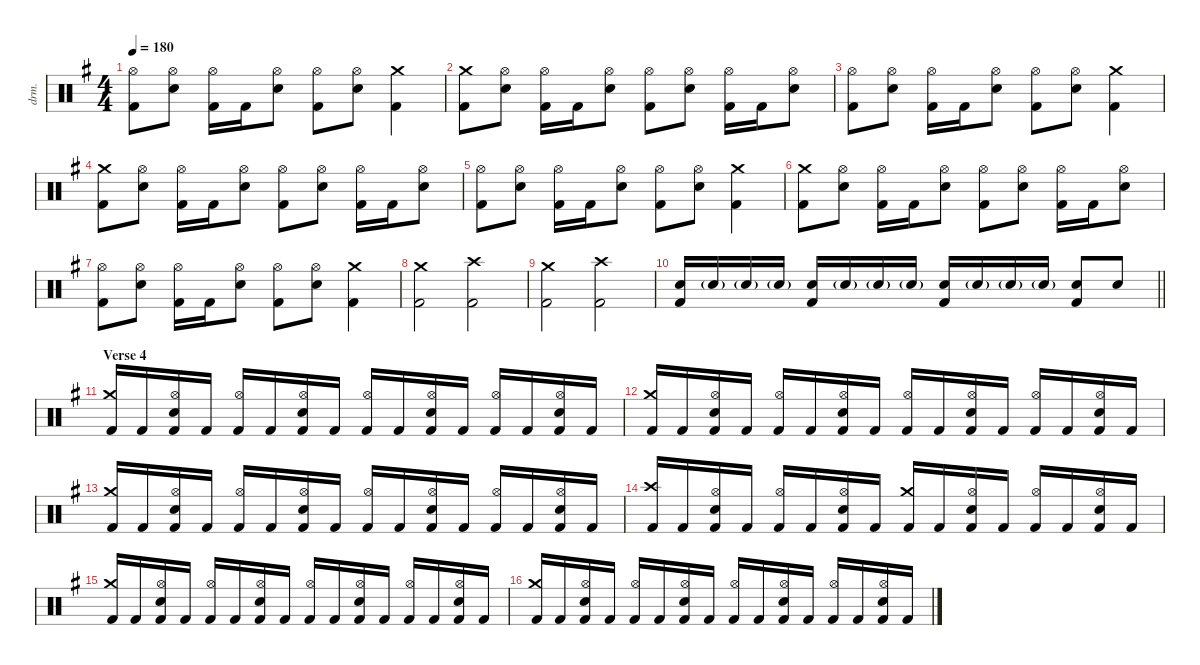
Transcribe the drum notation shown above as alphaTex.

\defaultSystemsLayout 4
\hideDynamics
\bracketExtendMode nobrackets
\otherSystemsTrackNameOrientation horizontal
\track ("Lars Ulrich" "drm.") {instrument percussion}
\staff {score}
\articulation defaults
\ts (4 4)
\tempo 180
\clef neutral
\ks eminor
("Hi-Hat (open)"{acc forcenatural} "Kick (hit) 2"{acc forcenatural}).8{dy f beam Down} ("Hi-Hat (open)"{acc forcenatural} "Snare (hit) 2"{acc forcenatural}).8{beam Down} ("Hi-Hat (open)"{acc forcenatural} "Kick (hit) 2"{acc forcenatural}).16{beam Down} "Kick (hit) 2"{acc forcenatural}.16{beam Down} ("Hi-Hat (open)"{acc forcenatural} "Snare (hit) 2"{acc forcenatural}).8{beam Down} ("Hi-Hat (open)"{acc forcenatural} "Kick (hit) 2"{acc forcenatural}).8{beam Down} ("Hi-Hat (open)"{acc forcenatural} "Snare (hit) 2"{acc forcenatural}).8{beam Down} ("Crash medium (hit)"{acc forcenatural} "Kick (hit) 2"{acc forcenatural}).4{beam Down} |
("Crash medium (hit)"{acc forcenatural} "Kick (hit) 2"{acc forcenatural}).8{beam Down} ("Hi-Hat (open)"{acc forcenatural} "Snare (hit) 2"{acc forcenatural}).8{beam Down} ("Hi-Hat (open)"{acc forcenatural} "Kick (hit) 2"{acc forcenatural}).16{beam Down} "Kick (hit) 2"{acc forcenatural}.16{beam Down} ("Hi-Hat (open)"{acc forcenatural} "Snare (hit) 2"{acc forcenatural}).8{beam Down} ("Hi-Hat (open)"{acc forcenatural} "Kick (hit) 2"{acc forcenatural}).8{beam Down} ("Hi-Hat (open)"{acc forcenatural} "Snare (hit) 2"{acc forcenatural}).8{beam Down} ("Hi-Hat (open)"{acc forcenatural} "Kick (hit) 2"{acc forcenatural}).16{beam Down} "Kick (hit) 2"{acc forcenatural}.16{beam Down} ("Hi-Hat (open)"{acc forcenatural} "Snare (hit) 2"{acc forcenatural}).8{beam Down} |
("Hi-Hat (open)"{acc forcenatural} "Kick (hit) 2"{acc forcenatural}).8{beam Down} ("Hi-Hat (open)"{acc forcenatural} "Snare (hit) 2"{acc forcenatural}).8{beam Down} ("Hi-Hat (open)"{acc forcenatural} "Kick (hit) 2"{acc forcenatural}).16{beam Down} "Kick (hit) 2"{acc forcenatural}.16{beam Down} ("Hi-Hat (open)"{acc forcenatural} "Snare (hit) 2"{acc forcenatural}).8{beam Down} ("Hi-Hat (open)"{acc forcenatural} "Kick (hit) 2"{acc forcenatural}).8{beam Down} ("Hi-Hat (open)"{acc forcenatural} "Snare (hit) 2"{acc forcenatural}).8{beam Down} ("Crash medium (hit)"{acc forcenatural} "Kick (hit) 2"{acc forcenatural}).4{beam Down} |
("Crash medium (hit)"{acc forcenatural} "Kick (hit) 2"{acc forcenatural}).8{beam Down} ("Hi-Hat (open)"{acc forcenatural} "Snare (hit) 2"{acc forcenatural}).8{beam Down} ("Hi-Hat (open)"{acc forcenatural} "Kick (hit) 2"{acc forcenatural}).16{beam Down} "Kick (hit) 2"{acc forcenatural}.16{beam Down} ("Hi-Hat (open)"{acc forcenatural} "Snare (hit) 2"{acc forcenatural}).8{beam Down} ("Hi-Hat (open)"{acc forcenatural} "Kick (hit) 2"{acc forcenatural}).8{beam Down} ("Hi-Hat (open)"{acc forcenatural} "Snare (hit) 2"{acc forcenatural}).8{beam Down} ("Hi-Hat (open)"{acc forcenatural} "Kick (hit) 2"{acc forcenatural}).16{beam Down} "Kick (hit) 2"{acc forcenatural}.16{beam Down} ("Hi-Hat (open)"{acc forcenatural} "Snare (hit) 2"{acc forcenatural}).8{beam Down} |
("Hi-Hat (open)"{acc forcenatural} "Kick (hit) 2"{acc forcenatural}).8{beam Down} ("Hi-Hat (open)"{acc forcenatural} "Snare (hit) 2"{acc forcenatural}).8{beam Down} ("Hi-Hat (open)"{acc forcenatural} "Kick (hit) 2"{acc forcenatural}).16{beam Down} "Kick (hit) 2"{acc forcenatural}.16{beam Down} ("Hi-Hat (open)"{acc forcenatural} "Snare (hit) 2"{acc forcenatural}).8{beam Down} ("Hi-Hat (open)"{acc forcenatural} "Kick (hit) 2"{acc forcenatural}).8{beam Down} ("Hi-Hat (open)"{acc forcenatural} "Snare (hit) 2"{acc forcenatural}).8{beam Down} ("Crash medium (hit)"{acc forcenatural} "Kick (hit) 2"{acc forcenatural}).4{beam Down} |
("Crash medium (hit)"{acc forcenatural} "Kick (hit) 2"{acc forcenatural}).8{beam Down} ("Hi-Hat (open)"{acc forcenatural} "Snare (hit) 2"{acc forcenatural}).8{beam Down} ("Hi-Hat (open)"{acc forcenatural} "Kick (hit) 2"{acc forcenatural}).16{beam Down} "Kick (hit) 2"{acc forcenatural}.16{beam Down} ("Hi-Hat (open)"{acc forcenatural} "Snare (hit) 2"{acc forcenatural}).8{beam Down} ("Hi-Hat (open)"{acc forcenatural} "Kick (hit) 2"{acc forcenatural}).8{beam Down} ("Hi-Hat (open)"{acc forcenatural} "Snare (hit) 2"{acc forcenatural}).8{beam Down} ("Hi-Hat (open)"{acc forcenatural} "Kick (hit) 2"{acc forcenatural}).16{beam Down} "Kick (hit) 2"{acc forcenatural}.16{beam Down} ("Hi-Hat (open)"{acc forcenatural} "Snare (hit) 2"{acc forcenatural}).8{beam Down} |
("Hi-Hat (open)"{acc forcenatural} "Kick (hit) 2"{acc forcenatural}).8{beam Down} ("Hi-Hat (open)"{acc forcenatural} "Snare (hit) 2"{acc forcenatural}).8{beam Down} ("Hi-Hat (open)"{acc forcenatural} "Kick (hit) 2"{acc forcenatural}).16{beam Down} "Kick (hit) 2"{acc forcenatural}.16{beam Down} ("Hi-Hat (open)"{acc forcenatural} "Snare (hit) 2"{acc forcenatural}).8{beam Down} ("Hi-Hat (open)"{acc forcenatural} "Kick (hit) 2"{acc forcenatural}).8{beam Down} ("Hi-Hat (open)"{acc forcenatural} "Snare (hit) 2"{acc forcenatural}).8{beam Down} ("Crash medium (hit)"{acc forcenatural} "Kick (hit) 2"{acc forcenatural}).4{beam Down} |
("Crash medium (hit)"{acc forcenatural} "Kick (hit) 2"{acc forcenatural}).2{beam Down} ("Crash high (hit)"{acc forcenatural} "Kick (hit) 2"{acc forcenatural}).2{beam Down} |
("Crash medium (hit)"{acc forcenatural} "Kick (hit) 2"{acc forcenatural}).2{beam Down} ("Crash high (hit)"{acc forcenatural} "Kick (hit) 2"{acc forcenatural}).2{beam Down} |
\barLineRight lightlight
("Snare (hit) 2"{acc forcenatural} "Kick (hit) 2"{acc forcenatural}).16{beam Up} "Snare (hit) 2"{g acc forcenatural}.16{dy ff beam Up} "Snare (hit) 2"{g acc forcenatural}.16{beam Up} "Snare (hit) 2"{g acc forcenatural}.16{beam Up} ("Snare (hit) 2"{acc forcenatural} "Kick (hit) 2"{acc forcenatural}).16{dy f beam Up} "Snare (hit) 2"{g acc forcenatural}.16{dy ff beam Up} "Snare (hit) 2"{g acc forcenatural}.16{beam Up} "Snare (hit) 2"{g acc forcenatural}.16{beam Up} ("Snare (hit) 2"{acc forcenatural} "Kick (hit) 2"{acc forcenatural}).16{dy f beam Up} "Snare (hit) 2"{g acc forcenatural}.16{dy ff beam Up} "Snare (hit) 2"{g acc forcenatural}.16{beam Up} "Snare (hit) 2"{g acc forcenatural}.16{beam Up} ("Snare (hit) 2"{acc forcenatural} "Kick (hit) 2"{acc forcenatural}).8{dy f beam Up} "Snare (hit) 2"{acc forcenatural}.8{beam Up} |
\section ("" "Verse 4")
("Crash medium (hit)"{acc forcenatural} "Kick (hit) 2"{acc forcenatural}).16{beam Up} "Kick (hit) 2"{acc forcenatural}.16{beam Up} ("Hi-Hat (open)"{acc forcenatural} "Snare (hit) 2"{acc forcenatural} "Kick (hit) 2"{acc forcenatural}).16{beam Up} "Kick (hit) 2"{acc forcenatural}.16{beam Up} ("Hi-Hat (open)"{acc forcenatural} "Kick (hit) 2"{acc forcenatural}).16{beam Up} "Kick (hit) 2"{acc forcenatural}.16{beam Up} ("Hi-Hat (open)"{acc forcenatural} "Snare (hit) 2"{acc forcenatural} "Kick (hit) 2"{acc forcenatural}).16{beam Up} "Kick (hit) 2"{acc forcenatural}.16{beam Up} ("Hi-Hat (open)"{acc forcenatural} "Kick (hit) 2"{acc forcenatural}).16{beam Up} "Kick (hit) 2"{acc forcenatural}.16{beam Up} ("Hi-Hat (open)"{acc forcenatural} "Snare (hit) 2"{acc forcenatural} "Kick (hit) 2"{acc forcenatural}).16{beam Up} "Kick (hit) 2"{acc forcenatural}.16{beam Up} ("Hi-Hat (open)"{acc forcenatural} "Kick (hit) 2"{acc forcenatural}).16{beam Up} "Kick (hit) 2"{acc forcenatural}.16{beam Up} ("Hi-Hat (open)"{acc forcenatural} "Snare (hit) 2"{acc forcenatural} "Kick (hit) 2"{acc forcenatural}).16{beam Up} "Kick (hit) 2"{acc forcenatural}.16{beam Up} |
("Crash medium (hit)"{acc forcenatural} "Kick (hit) 2"{acc forcenatural}).16{beam Up} "Kick (hit) 2"{acc forcenatural}.16{beam Up} ("Hi-Hat (open)"{acc forcenatural} "Snare (hit) 2"{acc forcenatural} "Kick (hit) 2"{acc forcenatural}).16{beam Up} "Kick (hit) 2"{acc forcenatural}.16{beam Up} ("Hi-Hat (open)"{acc forcenatural} "Kick (hit) 2"{acc forcenatural}).16{beam Up} "Kick (hit) 2"{acc forcenatural}.16{beam Up} ("Hi-Hat (open)"{acc forcenatural} "Snare (hit) 2"{acc forcenatural} "Kick (hit) 2"{acc forcenatural}).16{beam Up} "Kick (hit) 2"{acc forcenatural}.16{beam Up} ("Hi-Hat (open)"{acc forcenatural} "Kick (hit) 2"{acc forcenatural}).16{beam Up} "Kick (hit) 2"{acc forcenatural}.16{beam Up} ("Hi-Hat (open)"{acc forcenatural} "Snare (hit) 2"{acc forcenatural} "Kick (hit) 2"{acc forcenatural}).16{beam Up} "Kick (hit) 2"{acc forcenatural}.16{beam Up} ("Hi-Hat (open)"{acc forcenatural} "Kick (hit) 2"{acc forcenatural}).16{beam Up} "Kick (hit) 2"{acc forcenatural}.16{beam Up} ("Hi-Hat (open)"{acc forcenatural} "Snare (hit) 2"{acc forcenatural} "Kick (hit) 2"{acc forcenatural}).16{beam Up} "Kick (hit) 2"{acc forcenatural}.16{beam Up} |
("Crash medium (hit)"{acc forcenatural} "Kick (hit) 2"{acc forcenatural}).16{beam Up} "Kick (hit) 2"{acc forcenatural}.16{beam Up} ("Hi-Hat (open)"{acc forcenatural} "Snare (hit) 2"{acc forcenatural} "Kick (hit) 2"{acc forcenatural}).16{beam Up} "Kick (hit) 2"{acc forcenatural}.16{beam Up} ("Hi-Hat (open)"{acc forcenatural} "Kick (hit) 2"{acc forcenatural}).16{beam Up} "Kick (hit) 2"{acc forcenatural}.16{beam Up} ("Hi-Hat (open)"{acc forcenatural} "Snare (hit) 2"{acc forcenatural} "Kick (hit) 2"{acc forcenatural}).16{beam Up} "Kick (hit) 2"{acc forcenatural}.16{beam Up} ("Hi-Hat (open)"{acc forcenatural} "Kick (hit) 2"{acc forcenatural}).16{beam Up} "Kick (hit) 2"{acc forcenatural}.16{beam Up} ("Hi-Hat (open)"{acc forcenatural} "Snare (hit) 2"{acc forcenatural} "Kick (hit) 2"{acc forcenatural}).16{beam Up} "Kick (hit) 2"{acc forcenatural}.16{beam Up} ("Hi-Hat (open)"{acc forcenatural} "Kick (hit) 2"{acc forcenatural}).16{beam Up} "Kick (hit) 2"{acc forcenatural}.16{beam Up} ("Hi-Hat (open)"{acc forcenatural} "Snare (hit) 2"{acc forcenatural} "Kick (hit) 2"{acc forcenatural}).16{beam Up} "Kick (hit) 2"{acc forcenatural}.16{beam Up} |
("Crash high (hit)"{acc forcenatural} "Kick (hit) 2"{acc forcenatural}).16{beam Up} "Kick (hit) 2"{acc forcenatural}.16{beam Up} ("Hi-Hat (open)"{acc forcenatural} "Snare (hit) 2"{acc forcenatural} "Kick (hit) 2"{acc forcenatural}).16{beam Up} "Kick (hit) 2"{acc forcenatural}.16{beam Up} ("Hi-Hat (open)"{acc forcenatural} "Kick (hit) 2"{acc forcenatural}).16{beam Up} "Kick (hit) 2"{acc forcenatural}.16{beam Up} ("Hi-Hat (open)"{acc forcenatural} "Snare (hit) 2"{acc forcenatural} "Kick (hit) 2"{acc forcenatural}).16{beam Up} "Kick (hit) 2"{acc forcenatural}.16{beam Up} ("Crash medium (hit)"{acc forcenatural} "Kick (hit) 2"{acc forcenatural}).16{beam Up} "Kick (hit) 2"{acc forcenatural}.16{beam Up} ("Hi-Hat (open)"{acc forcenatural} "Snare (hit) 2"{acc forcenatural} "Kick (hit) 2"{acc forcenatural}).16{beam Up} "Kick (hit) 2"{acc forcenatural}.16{beam Up} ("Hi-Hat (open)"{acc forcenatural} "Kick (hit) 2"{acc forcenatural}).16{beam Up} "Kick (hit) 2"{acc forcenatural}.16{beam Up} ("Hi-Hat (open)"{acc forcenatural} "Snare (hit) 2"{acc forcenatural} "Kick (hit) 2"{acc forcenatural}).16{beam Up} "Kick (hit) 2"{acc forcenatural}.16{beam Up} |
("Crash medium (hit)"{acc forcenatural} "Kick (hit) 2"{acc forcenatural}).16{beam Up} "Kick (hit) 2"{acc forcenatural}.16{beam Up} ("Hi-Hat (open)"{acc forcenatural} "Snare (hit) 2"{acc forcenatural} "Kick (hit) 2"{acc forcenatural}).16{beam Up} "Kick (hit) 2"{acc forcenatural}.16{beam Up} ("Hi-Hat (open)"{acc forcenatural} "Kick (hit) 2"{acc forcenatural}).16{beam Up} "Kick (hit) 2"{acc forcenatural}.16{beam Up} ("Hi-Hat (open)"{acc forcenatural} "Snare (hit) 2"{acc forcenatural} "Kick (hit) 2"{acc forcenatural}).16{beam Up} "Kick (hit) 2"{acc forcenatural}.16{beam Up} ("Hi-Hat (open)"{acc forcenatural} "Kick (hit) 2"{acc forcenatural}).16{beam Up} "Kick (hit) 2"{acc forcenatural}.16{beam Up} ("Hi-Hat (open)"{acc forcenatural} "Snare (hit) 2"{acc forcenatural} "Kick (hit) 2"{acc forcenatural}).16{beam Up} "Kick (hit) 2"{acc forcenatural}.16{beam Up} ("Hi-Hat (open)"{acc forcenatural} "Kick (hit) 2"{acc forcenatural}).16{beam Up} "Kick (hit) 2"{acc forcenatural}.16{beam Up} ("Hi-Hat (open)"{acc forcenatural} "Snare (hit) 2"{acc forcenatural} "Kick (hit) 2"{acc forcenatural}).16{beam Up} "Kick (hit) 2"{acc forcenatural}.16{beam Up} |
("Crash medium (hit)"{acc forcenatural} "Kick (hit) 2"{acc forcenatural}).16{beam Up} "Kick (hit) 2"{acc forcenatural}.16{beam Up} ("Hi-Hat (open)"{acc forcenatural} "Snare (hit) 2"{acc forcenatural} "Kick (hit) 2"{acc forcenatural}).16{beam Up} "Kick (hit) 2"{acc forcenatural}.16{beam Up} ("Hi-Hat (open)"{acc forcenatural} "Kick (hit) 2"{acc forcenatural}).16{beam Up} "Kick (hit) 2"{acc forcenatural}.16{beam Up} ("Hi-Hat (open)"{acc forcenatural} "Snare (hit) 2"{acc forcenatural} "Kick (hit) 2"{acc forcenatural}).16{beam Up} "Kick (hit) 2"{acc forcenatural}.16{beam Up} ("Hi-Hat (open)"{acc forcenatural} "Kick (hit) 2"{acc forcenatural}).16{beam Up} "Kick (hit) 2"{acc forcenatural}.16{beam Up} ("Hi-Hat (open)"{acc forcenatural} "Snare (hit) 2"{acc forcenatural} "Kick (hit) 2"{acc forcenatural}).16{beam Up} "Kick (hit) 2"{acc forcenatural}.16{beam Up} ("Hi-Hat (open)"{acc forcenatural} "Kick (hit) 2"{acc forcenatural}).16{beam Up} "Kick (hit) 2"{acc forcenatural}.16{beam Up} ("Hi-Hat (open)"{acc forcenatural} "Snare (hit) 2"{acc forcenatural} "Kick (hit) 2"{acc forcenatural}).16{beam Up} "Kick (hit) 2"{acc forcenatural}.16{beam Up}
